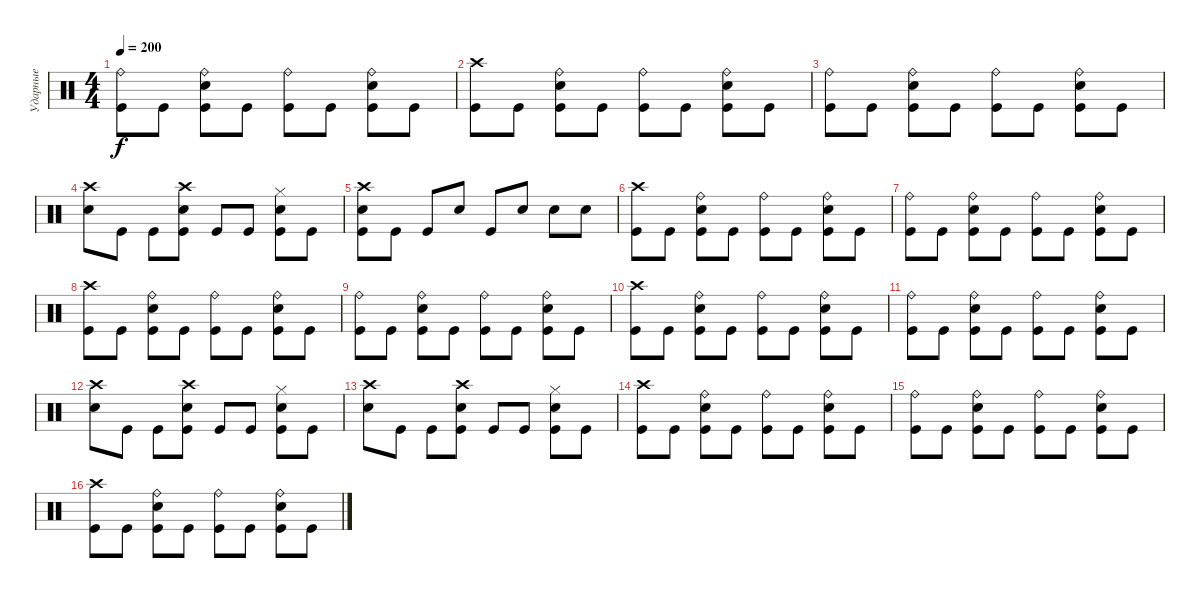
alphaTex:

\track ("Ударные" "Ударные") {instrument percussion}
\staff {score}
\articulation defaults
\ts (4 4)
\tempo 200
\clef neutral
\ks c
("Ride (bell)" "Kick (hit)").8{dy f} "Kick (hit)".8 ("Ride (bell)" "Electric Snare (hit)" "Kick (hit)").8 "Kick (hit)".8 ("Ride (bell)" "Kick (hit)").8 "Kick (hit)".8 ("Ride (bell)" "Electric Snare (hit)" "Kick (hit)").8 "Kick (hit)".8 |
("Crash high (hit)" "Kick (hit)").8 "Kick (hit)".8 ("Ride (bell)" "Electric Snare (hit)" "Kick (hit)").8 "Kick (hit)".8 ("Ride (bell)" "Kick (hit)").8 "Kick (hit)".8 ("Ride (bell)" "Electric Snare (hit)" "Kick (hit)").8 "Kick (hit)".8 |
("Ride (bell)" "Kick (hit)").8 "Kick (hit)".8 ("Ride (bell)" "Electric Snare (hit)" "Kick (hit)").8 "Kick (hit)".8 ("Ride (bell)" "Kick (hit)").8 "Kick (hit)".8 ("Ride (bell)" "Electric Snare (hit)" "Kick (hit)").8 "Kick (hit)".8 |
("Crash high (hit)" "Electric Snare (hit)").8 "Kick (hit)".8 "Kick (hit)".8 ("Crash high (hit)" "Electric Snare (hit)" "Kick (hit)").8 "Kick (hit)".8 "Kick (hit)".8 ("Hi-Hat (closed)" "Electric Snare (hit)" "Kick (hit)").8 "Kick (hit)".8 |
("Crash high (hit)" "Electric Snare (hit)" "Kick (hit)").8 "Kick (hit)".8 "Kick (hit)".8 "Electric Snare (hit)".8 "Kick (hit)".8 "Electric Snare (hit)".8 "Electric Snare (hit)".8 "Electric Snare (hit)".8 |
("Crash high (hit)" "Kick (hit)").8 "Kick (hit)".8 ("Ride (bell)" "Electric Snare (hit)" "Kick (hit)").8 "Kick (hit)".8 ("Ride (bell)" "Kick (hit)").8 "Kick (hit)".8 ("Ride (bell)" "Electric Snare (hit)" "Kick (hit)").8 "Kick (hit)".8 |
("Ride (bell)" "Kick (hit)").8 "Kick (hit)".8 ("Ride (bell)" "Electric Snare (hit)" "Kick (hit)").8 "Kick (hit)".8 ("Ride (bell)" "Kick (hit)").8 "Kick (hit)".8 ("Ride (bell)" "Electric Snare (hit)" "Kick (hit)").8 "Kick (hit)".8 |
("Crash high (hit)" "Kick (hit)").8 "Kick (hit)".8 ("Ride (bell)" "Electric Snare (hit)" "Kick (hit)").8 "Kick (hit)".8 ("Ride (bell)" "Kick (hit)").8 "Kick (hit)".8 ("Ride (bell)" "Electric Snare (hit)" "Kick (hit)").8 "Kick (hit)".8 |
("Ride (bell)" "Kick (hit)").8 "Kick (hit)".8 ("Ride (bell)" "Electric Snare (hit)" "Kick (hit)").8 "Kick (hit)".8 ("Ride (bell)" "Kick (hit)").8 "Kick (hit)".8 ("Ride (bell)" "Electric Snare (hit)" "Kick (hit)").8 "Kick (hit)".8 |
("Crash high (hit)" "Kick (hit)").8 "Kick (hit)".8 ("Ride (bell)" "Electric Snare (hit)" "Kick (hit)").8 "Kick (hit)".8 ("Ride (bell)" "Kick (hit)").8 "Kick (hit)".8 ("Ride (bell)" "Electric Snare (hit)" "Kick (hit)").8 "Kick (hit)".8 |
("Ride (bell)" "Kick (hit)").8 "Kick (hit)".8 ("Ride (bell)" "Electric Snare (hit)" "Kick (hit)").8 "Kick (hit)".8 ("Ride (bell)" "Kick (hit)").8 "Kick (hit)".8 ("Ride (bell)" "Electric Snare (hit)" "Kick (hit)").8 "Kick (hit)".8 |
("Crash high (hit)" "Electric Snare (hit)").8 "Kick (hit)".8 "Kick (hit)".8 ("Crash high (hit)" "Electric Snare (hit)" "Kick (hit)").8 "Kick (hit)".8 "Kick (hit)".8 ("Hi-Hat (closed)" "Electric Snare (hit)" "Kick (hit)").8 "Kick (hit)".8 |
("Crash high (hit)" "Electric Snare (hit)").8 "Kick (hit)".8 "Kick (hit)".8 ("Crash high (hit)" "Electric Snare (hit)" "Kick (hit)").8 "Kick (hit)".8 "Kick (hit)".8 ("Hi-Hat (closed)" "Electric Snare (hit)" "Kick (hit)").8 "Kick (hit)".8 |
("Crash high (hit)" "Kick (hit)").8 "Kick (hit)".8 ("Ride (bell)" "Electric Snare (hit)" "Kick (hit)").8 "Kick (hit)".8 ("Ride (bell)" "Kick (hit)").8 "Kick (hit)".8 ("Ride (bell)" "Electric Snare (hit)" "Kick (hit)").8 "Kick (hit)".8 |
("Ride (bell)" "Kick (hit)").8 "Kick (hit)".8 ("Ride (bell)" "Electric Snare (hit)" "Kick (hit)").8 "Kick (hit)".8 ("Ride (bell)" "Kick (hit)").8 "Kick (hit)".8 ("Ride (bell)" "Electric Snare (hit)" "Kick (hit)").8 "Kick (hit)".8 |
("Crash high (hit)" "Kick (hit)").8 "Kick (hit)".8 ("Ride (bell)" "Electric Snare (hit)" "Kick (hit)").8 "Kick (hit)".8 ("Ride (bell)" "Kick (hit)").8 "Kick (hit)".8 ("Ride (bell)" "Electric Snare (hit)" "Kick (hit)").8 "Kick (hit)".8
